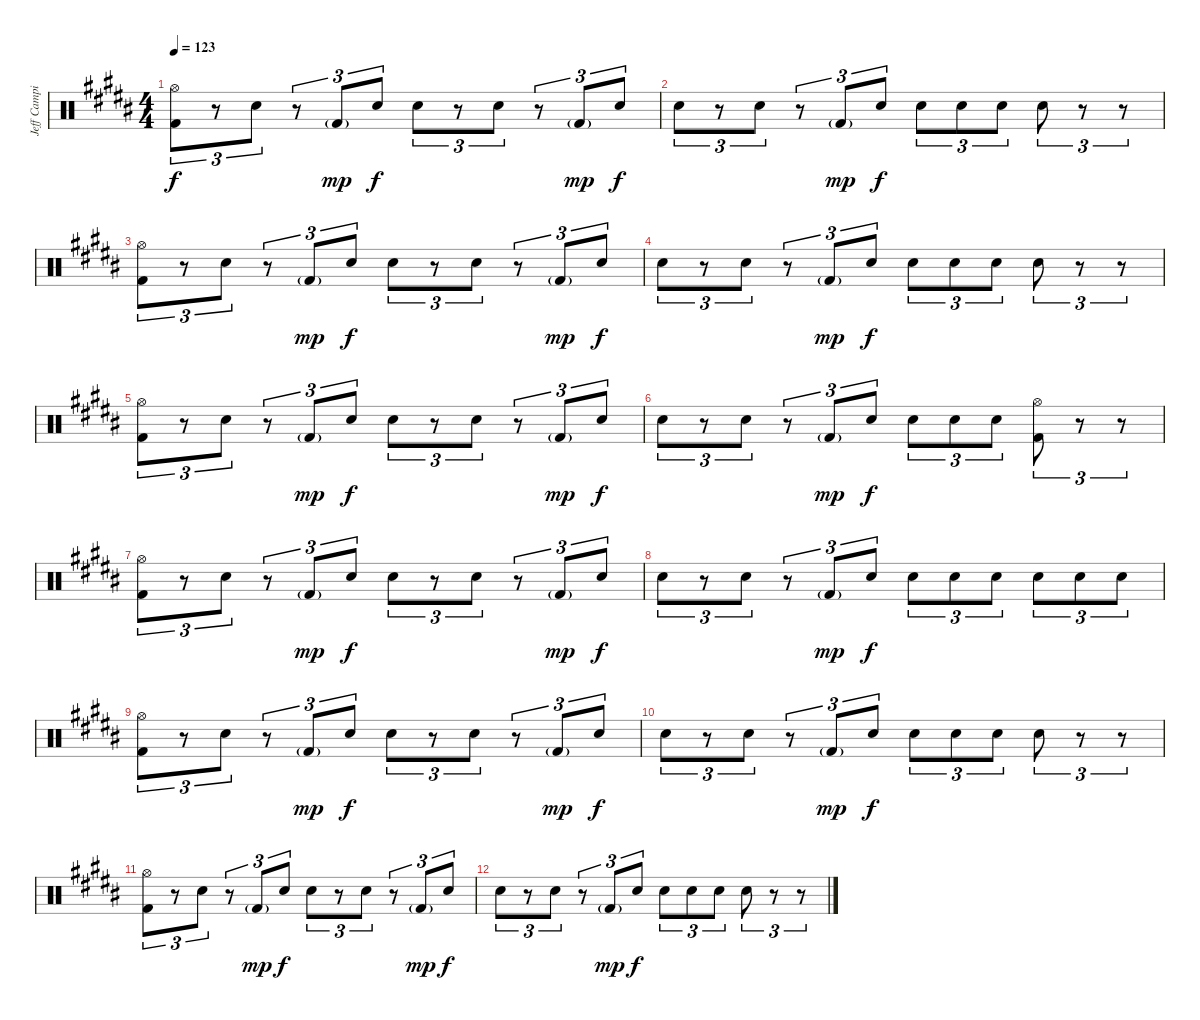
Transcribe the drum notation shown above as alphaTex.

\track ("Jeff Campitelli (Drums)" "Jeff Campi") {instrument percussion}
\staff {score}
\articulation defaults
\ts (4 4)
\tempo 123
\clef neutral
\ks b
("Hi-Hat (open)" "Kick (hit) 2").8{tu (3 2) dy f} r.8{tu (3 2)} "Electric Snare (hit)".8{tu (3 2)} r.8{tu (3 2)} "Kick (hit) 2"{g}.8{tu (3 2) dy mp} "Electric Snare (hit)".8{tu (3 2) dy f} "Electric Snare (hit)".8{tu (3 2)} r.8{tu (3 2)} "Electric Snare (hit)".8{tu (3 2)} r.8{tu (3 2)} "Kick (hit) 2"{g}.8{tu (3 2) dy mp} "Electric Snare (hit)".8{tu (3 2) dy f} |
"Electric Snare (hit)".8{tu (3 2)} r.8{tu (3 2)} "Electric Snare (hit)".8{tu (3 2)} r.8{tu (3 2)} "Kick (hit) 2"{g}.8{tu (3 2) dy mp} "Electric Snare (hit)".8{tu (3 2) dy f} "Electric Snare (hit)".8{tu (3 2)} "Electric Snare (hit)".8{tu (3 2)} "Electric Snare (hit)".8{tu (3 2)} "Electric Snare (hit)".8{tu (3 2)} r.8{tu (3 2)} r.8{tu (3 2)} |
("Hi-Hat (open)" "Kick (hit) 2").8{tu (3 2)} r.8{tu (3 2)} "Electric Snare (hit)".8{tu (3 2)} r.8{tu (3 2)} "Kick (hit) 2"{g}.8{tu (3 2) dy mp} "Electric Snare (hit)".8{tu (3 2) dy f} "Electric Snare (hit)".8{tu (3 2)} r.8{tu (3 2)} "Electric Snare (hit)".8{tu (3 2)} r.8{tu (3 2)} "Kick (hit) 2"{g}.8{tu (3 2) dy mp} "Electric Snare (hit)".8{tu (3 2) dy f} |
"Electric Snare (hit)".8{tu (3 2)} r.8{tu (3 2)} "Electric Snare (hit)".8{tu (3 2)} r.8{tu (3 2)} "Kick (hit) 2"{g}.8{tu (3 2) dy mp} "Electric Snare (hit)".8{tu (3 2) dy f} "Electric Snare (hit)".8{tu (3 2)} "Electric Snare (hit)".8{tu (3 2)} "Electric Snare (hit)".8{tu (3 2)} "Electric Snare (hit)".8{tu (3 2)} r.8{tu (3 2)} r.8{tu (3 2)} |
("Hi-Hat (open)" "Kick (hit) 2").8{tu (3 2)} r.8{tu (3 2)} "Electric Snare (hit)".8{tu (3 2)} r.8{tu (3 2)} "Kick (hit) 2"{g}.8{tu (3 2) dy mp} "Electric Snare (hit)".8{tu (3 2) dy f} "Electric Snare (hit)".8{tu (3 2)} r.8{tu (3 2)} "Electric Snare (hit)".8{tu (3 2)} r.8{tu (3 2)} "Kick (hit) 2"{g}.8{tu (3 2) dy mp} "Electric Snare (hit)".8{tu (3 2) dy f} |
"Electric Snare (hit)".8{tu (3 2)} r.8{tu (3 2)} "Electric Snare (hit)".8{tu (3 2)} r.8{tu (3 2)} "Kick (hit) 2"{g}.8{tu (3 2) dy mp} "Electric Snare (hit)".8{tu (3 2) dy f} "Electric Snare (hit)".8{tu (3 2)} "Electric Snare (hit)".8{tu (3 2)} "Electric Snare (hit)".8{tu (3 2)} ("Hi-Hat (open)" "Kick (hit) 2").8{tu (3 2)} r.8{tu (3 2)} r.8{tu (3 2)} |
("Hi-Hat (open)" "Kick (hit) 2").8{tu (3 2)} r.8{tu (3 2)} "Electric Snare (hit)".8{tu (3 2)} r.8{tu (3 2)} "Kick (hit) 2"{g}.8{tu (3 2) dy mp} "Electric Snare (hit)".8{tu (3 2) dy f} "Electric Snare (hit)".8{tu (3 2)} r.8{tu (3 2)} "Electric Snare (hit)".8{tu (3 2)} r.8{tu (3 2)} "Kick (hit) 2"{g}.8{tu (3 2) dy mp} "Electric Snare (hit)".8{tu (3 2) dy f} |
"Electric Snare (hit)".8{tu (3 2)} r.8{tu (3 2)} "Electric Snare (hit)".8{tu (3 2)} r.8{tu (3 2)} "Kick (hit) 2"{g}.8{tu (3 2) dy mp} "Electric Snare (hit)".8{tu (3 2) dy f} "Electric Snare (hit)".8{tu (3 2)} "Electric Snare (hit)".8{tu (3 2)} "Electric Snare (hit)".8{tu (3 2)} "Electric Snare (hit)".8{tu (3 2)} "Electric Snare (hit)".8{tu (3 2)} "Electric Snare (hit)".8{tu (3 2)} |
("Hi-Hat (open)" "Kick (hit) 2").8{tu (3 2)} r.8{tu (3 2)} "Electric Snare (hit)".8{tu (3 2)} r.8{tu (3 2)} "Kick (hit) 2"{g}.8{tu (3 2) dy mp} "Electric Snare (hit)".8{tu (3 2) dy f} "Electric Snare (hit)".8{tu (3 2)} r.8{tu (3 2)} "Electric Snare (hit)".8{tu (3 2)} r.8{tu (3 2)} "Kick (hit) 2"{g}.8{tu (3 2) dy mp} "Electric Snare (hit)".8{tu (3 2) dy f} |
"Electric Snare (hit)".8{tu (3 2)} r.8{tu (3 2)} "Electric Snare (hit)".8{tu (3 2)} r.8{tu (3 2)} "Kick (hit) 2"{g}.8{tu (3 2) dy mp} "Electric Snare (hit)".8{tu (3 2) dy f} "Electric Snare (hit)".8{tu (3 2)} "Electric Snare (hit)".8{tu (3 2)} "Electric Snare (hit)".8{tu (3 2)} "Electric Snare (hit)".8{tu (3 2)} r.8{tu (3 2)} r.8{tu (3 2)} |
("Hi-Hat (open)" "Kick (hit) 2").8{tu (3 2)} r.8{tu (3 2)} "Electric Snare (hit)".8{tu (3 2)} r.8{tu (3 2)} "Kick (hit) 2"{g}.8{tu (3 2) dy mp} "Electric Snare (hit)".8{tu (3 2) dy f} "Electric Snare (hit)".8{tu (3 2)} r.8{tu (3 2)} "Electric Snare (hit)".8{tu (3 2)} r.8{tu (3 2)} "Kick (hit) 2"{g}.8{tu (3 2) dy mp} "Electric Snare (hit)".8{tu (3 2) dy f} |
"Electric Snare (hit)".8{tu (3 2)} r.8{tu (3 2)} "Electric Snare (hit)".8{tu (3 2)} r.8{tu (3 2)} "Kick (hit) 2"{g}.8{tu (3 2) dy mp} "Electric Snare (hit)".8{tu (3 2) dy f} "Electric Snare (hit)".8{tu (3 2)} "Electric Snare (hit)".8{tu (3 2)} "Electric Snare (hit)".8{tu (3 2)} "Electric Snare (hit)".8{tu (3 2)} r.8{tu (3 2)} r.8{tu (3 2)}
